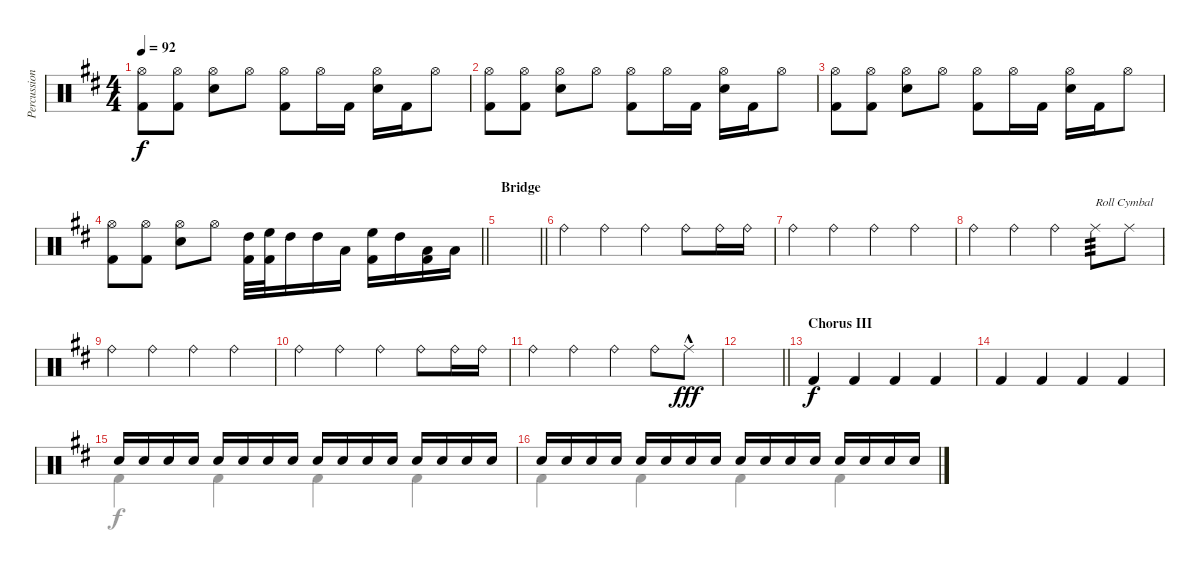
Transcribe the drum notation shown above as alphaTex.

\track ("Percussion" "Percussion") {instrument percussion}
\staff {score}
\articulation defaults
\voice
\ts (4 4)
\tempo 92
\clef neutral
\ks d
("Hi-Hat (open)" "Kick (hit) 2").8{dy f} ("Hi-Hat (open)" "Kick (hit) 2").8 ("Hi-Hat (open)" "Snare (hit) 2").8 "Hi-Hat (open)".8 ("Hi-Hat (open)" "Kick (hit) 2").8 "Hi-Hat (open)".16 "Kick (hit) 2".16 ("Hi-Hat (open)" "Snare (hit) 2").16 "Kick (hit) 2".16 "Hi-Hat (open)".8 |
("Hi-Hat (open)" "Kick (hit) 2").8 ("Hi-Hat (open)" "Kick (hit) 2").8 ("Hi-Hat (open)" "Snare (hit) 2").8 "Hi-Hat (open)".8 ("Hi-Hat (open)" "Kick (hit) 2").8 "Hi-Hat (open)".16 "Kick (hit) 2".16 ("Hi-Hat (open)" "Snare (hit) 2").16 "Kick (hit) 2".16 "Hi-Hat (open)".8 |
("Hi-Hat (open)" "Kick (hit) 2").8 ("Hi-Hat (open)" "Kick (hit) 2").8 ("Hi-Hat (open)" "Snare (hit) 2").8 "Hi-Hat (open)".8 ("Hi-Hat (open)" "Kick (hit) 2").8 "Hi-Hat (open)".16 "Kick (hit) 2".16 ("Hi-Hat (open)" "Snare (hit) 2").16 "Kick (hit) 2".16 "Hi-Hat (open)".8 |
\barLineRight lightlight
("Hi-Hat (open)" "Kick (hit) 2").8 ("Hi-Hat (open)" "Kick (hit) 2").8 ("Hi-Hat (open)" "Snare (hit) 2").8 "Hi-Hat (open)".8 ("High Tom (hit)" "Kick (hit) 2").32 ("High Floor Tom (hit)" "Kick (hit) 2").32 "High Tom (hit)".16 "High Tom (hit)".16 "Low Tom (hit)".16 ("High Floor Tom (hit)" "Kick (hit) 2").16 "High Tom (hit)".16 ("Low Tom (hit)" "Kick (hit) 2").16 "Low Floor Tom (hit)".16 |
\section ("" "Bridge")
\barLineRight lightlight
|
"Ride (bell)".4 "Ride (bell)".4 "Ride (bell)".4 "Ride (bell)".8 "Ride (bell)".16 "Ride (bell)".16 |
"Ride (bell)".4 "Ride (bell)".4 "Ride (bell)".4 "Ride (bell)".4 |
"Ride (bell)".4 "Ride (bell)".4 "Ride (bell)".4 "Ride (middle)".8{txt "Roll Cymbal" tp 3} "Ride (middle)".8 |
"Ride (bell)".4 "Ride (bell)".4 "Ride (bell)".4 "Ride (bell)".4 |
"Ride (bell)".4 "Ride (bell)".4 "Ride (bell)".4 "Ride (bell)".8 "Ride (bell)".16 "Ride (bell)".16 |
"Ride (bell)".4 "Ride (bell)".4 "Ride (bell)".4 "Ride (bell)".8 "Ride (middle)"{hac}.8{dy fff} |
\barLineRight lightlight
|
\section ("" "Chorus III")
"Kick (hit) 2".4{dy f} "Kick (hit) 2".4 "Kick (hit) 2".4 "Kick (hit) 2".4 |
"Kick (hit) 2".4 "Kick (hit) 2".4 "Kick (hit) 2".4 "Kick (hit) 2".4 |
"Snare (hit) 2".16{volume 6} "Snare (hit) 2".16{volume 13} "Snare (hit) 2".16 "Snare (hit) 2".16 "Snare (hit) 2".16 "Snare (hit) 2".16 "Snare (hit) 2".16 "Snare (hit) 2".16 "Snare (hit) 2".16 "Snare (hit) 2".16 "Snare (hit) 2".16 "Snare (hit) 2".16 "Snare (hit) 2".16 "Snare (hit) 2".16 "Snare (hit) 2".16 "Snare (hit) 2".16 |
"Snare (hit) 2".16 "Snare (hit) 2".16 "Snare (hit) 2".16 "Snare (hit) 2".16 "Snare (hit) 2".16 "Snare (hit) 2".16 "Snare (hit) 2".16 "Snare (hit) 2".16 "Snare (hit) 2".16 "Snare (hit) 2".16 "Snare (hit) 2".16 "Snare (hit) 2".16 "Snare (hit) 2".16 "Snare (hit) 2".16 "Snare (hit) 2".16 "Snare (hit) 2".16
\voice
\clef neutral
\ottava regular
\simile none
\ks d
|
|
|
\barLineRight lightlight
|
\barLineRight lightlight
|
|
|
|
|
|
|
\barLineRight lightlight
|
|
|
"Kick (hit) 2".4 "Kick (hit) 2".4 "Kick (hit) 2".4 "Kick (hit) 2".4 |
"Kick (hit) 2".4 "Kick (hit) 2".4 "Kick (hit) 2".4 "Kick (hit) 2".4
